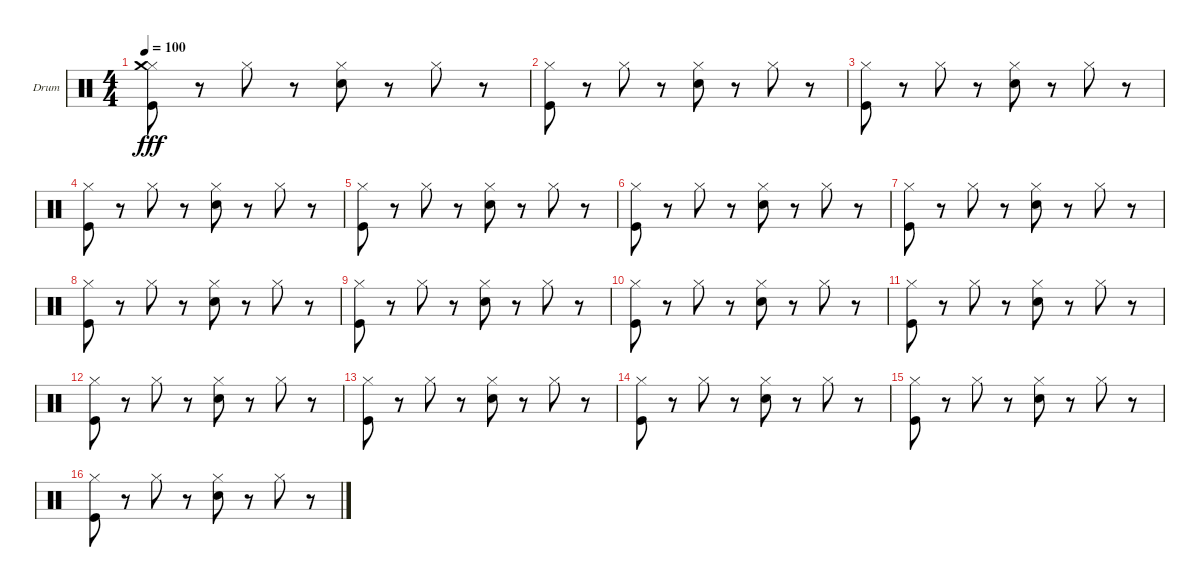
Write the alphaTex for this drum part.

\defaultSystemsLayout 4
\bracketExtendMode groupsimilarinstruments
\firstSystemTrackNameOrientation horizontal
\otherSystemsTrackNameOrientation horizontal
\track ("Drum" "Drum") {instrument percussion}
\staff {score}
\articulation defaults
\ts (4 4)
\tempo 100
\clef neutral
\scale
0.333333
\ks c
("Hi-Hat (closed)" "Crash medium (hit)" "Kick (hit)").8{dy fff} r.8 "Hi-Hat (closed)".8 r.8 ("Hi-Hat (closed)" "Snare (hit) 2").8 r.8 "Hi-Hat (closed)".8 r.8 |
\scale
0.333333 ("Hi-Hat (closed)" "Kick (hit)").8 r.8 "Hi-Hat (closed)".8 r.8 ("Hi-Hat (closed)" "Snare (hit) 2").8 r.8 "Hi-Hat (closed)".8 r.8 |
\scale
0.333333 ("Hi-Hat (closed)" "Kick (hit)").8 r.8 "Hi-Hat (closed)".8 r.8 ("Hi-Hat (closed)" "Snare (hit) 2").8 r.8 "Hi-Hat (closed)".8 r.8 |
\scale
0.333333 ("Hi-Hat (closed)" "Kick (hit)").8 r.8 "Hi-Hat (closed)".8 r.8 ("Hi-Hat (closed)" "Snare (hit) 2").8 r.8 "Hi-Hat (closed)".8 r.8 |
\scale
0.333333 ("Hi-Hat (closed)" "Kick (hit)").8 r.8 "Hi-Hat (closed)".8 r.8 ("Hi-Hat (closed)" "Snare (hit) 2").8 r.8 "Hi-Hat (closed)".8 r.8 |
\scale
0.333333 ("Hi-Hat (closed)" "Kick (hit)").8 r.8 "Hi-Hat (closed)".8 r.8 ("Hi-Hat (closed)" "Snare (hit) 2").8 r.8 "Hi-Hat (closed)".8 r.8 |
\scale
0.333333 ("Hi-Hat (closed)" "Kick (hit)").8 r.8 "Hi-Hat (closed)".8 r.8 ("Hi-Hat (closed)" "Snare (hit) 2").8 r.8 "Hi-Hat (closed)".8 r.8 |
\scale
0.333333 ("Hi-Hat (closed)" "Kick (hit)").8 r.8 "Hi-Hat (closed)".8 r.8 ("Hi-Hat (closed)" "Snare (hit) 2").8 r.8 "Hi-Hat (closed)".8 r.8 |
\scale
0.333333 ("Hi-Hat (closed)" "Kick (hit)").8 r.8 "Hi-Hat (closed)".8 r.8 ("Hi-Hat (closed)" "Snare (hit) 2").8 r.8 "Hi-Hat (closed)".8 r.8 |
\scale
0.333333 ("Hi-Hat (closed)" "Kick (hit)").8 r.8 "Hi-Hat (closed)".8 r.8 ("Hi-Hat (closed)" "Snare (hit) 2").8 r.8 "Hi-Hat (closed)".8 r.8 |
\scale
0.333333 ("Hi-Hat (closed)" "Kick (hit)").8 r.8 "Hi-Hat (closed)".8 r.8 ("Hi-Hat (closed)" "Snare (hit) 2").8 r.8 "Hi-Hat (closed)".8 r.8 |
\scale
0.333333 ("Hi-Hat (closed)" "Kick (hit)").8 r.8 "Hi-Hat (closed)".8 r.8 ("Hi-Hat (closed)" "Snare (hit) 2").8 r.8 "Hi-Hat (closed)".8 r.8 |
\scale
0.333333 ("Hi-Hat (closed)" "Kick (hit)").8 r.8 "Hi-Hat (closed)".8 r.8 ("Hi-Hat (closed)" "Snare (hit) 2").8 r.8 "Hi-Hat (closed)".8 r.8 |
\scale
0.333333 ("Hi-Hat (closed)" "Kick (hit)").8 r.8 "Hi-Hat (closed)".8 r.8 ("Hi-Hat (closed)" "Snare (hit) 2").8 r.8 "Hi-Hat (closed)".8 r.8 |
\scale
0.333333 ("Hi-Hat (closed)" "Kick (hit)").8 r.8 "Hi-Hat (closed)".8 r.8 ("Hi-Hat (closed)" "Snare (hit) 2").8 r.8 "Hi-Hat (closed)".8 r.8 |
\scale
0.333333 ("Hi-Hat (closed)" "Kick (hit)").8 r.8 "Hi-Hat (closed)".8 r.8 ("Hi-Hat (closed)" "Snare (hit) 2").8 r.8 "Hi-Hat (closed)".8 r.8
